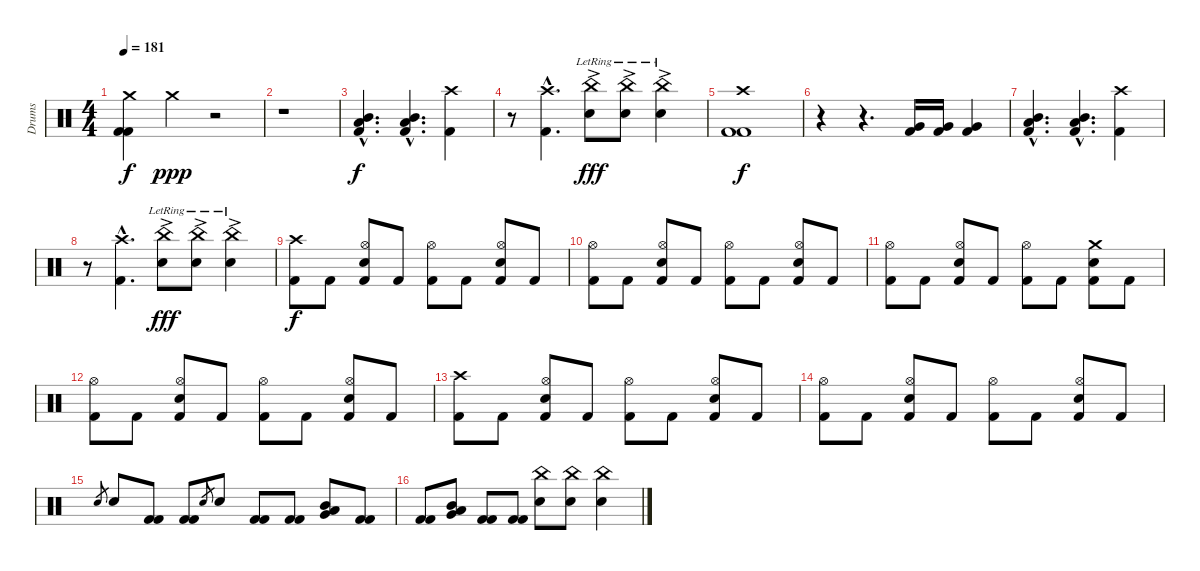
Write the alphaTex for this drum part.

\track ("Drums" "Drums") {instrument percussion}
\staff {score}
\articulation defaults
\ts (4 4)
\tempo 181
\clef neutral
\ks c
("Crash medium (hit)" "Kick (hit) 2" "Kick (hit) 2").4{dy f volume 14} "Crash medium (hit)".4{dy ppp} r.2 |
r.1 |
("Mid Tom (hit)"{hac} "Low Tom (hit)"{hac} "Kick (hit) 2"{hac}).4{d dy f} ("Mid Tom (hit)"{hac} "Low Tom (hit)"{hac} "Kick (hit) 2"{hac}).4{d} ("Crash high (hit)" "Kick (hit) 2").4 |
r.8 ("Crash high (hit)"{hac} "Kick (hit) 2"{hac}).4{d} ("China (hit)" "Snare (hit) 2"{ac lr}).8{dy fff} ("China (hit)" "Snare (hit) 2"{ac lr}).8 ("China (hit)" "Snare (hit) 2"{ac lr}).4 |
("Crash high (hit)" "Kick (hit) 2" "Kick (hit) 2").1{dy f} |
r.4 r.4{d} ("Very Low Tom (hit)" "Kick (hit) 2").16 ("Very Low Tom (hit)" "Kick (hit) 2").16 ("Very Low Tom (hit)" "Kick (hit) 2").4 |
("Mid Tom (hit)"{hac} "Low Tom (hit)"{hac} "Kick (hit) 2"{hac}).4{d} ("Mid Tom (hit)"{hac} "Low Tom (hit)"{hac} "Kick (hit) 2"{hac}).4{d} ("Crash high (hit)" "Kick (hit) 2").4 |
r.8 ("Crash high (hit)"{hac} "Kick (hit) 2"{hac}).4{d} ("China (hit)" "Snare (hit) 2"{ac lr}).8{dy fff} ("China (hit)" "Snare (hit) 2"{ac lr}).8 ("China (hit)" "Snare (hit) 2"{ac lr}).4 |
("Crash high (hit)" "Kick (hit) 2").8{dy f} "Kick (hit) 2".8 ("Hi-Hat (open)" "Electric Snare (hit)" "Kick (hit) 2").8 "Kick (hit) 2".8 ("Hi-Hat (open)" "Kick (hit) 2").8 "Kick (hit) 2".8 ("Hi-Hat (open)" "Electric Snare (hit)" "Kick (hit) 2").8 "Kick (hit) 2".8 |
("Hi-Hat (open)" "Kick (hit) 2").8 "Kick (hit) 2".8 ("Hi-Hat (open)" "Electric Snare (hit)" "Kick (hit) 2").8 "Kick (hit) 2".8 ("Hi-Hat (open)" "Kick (hit) 2").8 "Kick (hit) 2".8 ("Hi-Hat (open)" "Electric Snare (hit)" "Kick (hit) 2").8 "Kick (hit) 2".8 |
("Hi-Hat (open)" "Kick (hit) 2").8 "Kick (hit) 2".8 ("Hi-Hat (open)" "Electric Snare (hit)" "Kick (hit) 2").8 "Kick (hit) 2".8 ("Hi-Hat (open)" "Kick (hit) 2").8 "Kick (hit) 2".8 ("Crash medium (hit)" "Electric Snare (hit)" "Kick (hit) 2").8 "Kick (hit) 2".8 |
("Hi-Hat (open)" "Kick (hit) 2").8 "Kick (hit) 2".8 ("Hi-Hat (open)" "Electric Snare (hit)" "Kick (hit) 2").8 "Kick (hit) 2".8 ("Hi-Hat (open)" "Kick (hit) 2").8 "Kick (hit) 2".8 ("Hi-Hat (open)" "Electric Snare (hit)" "Kick (hit) 2").8 "Kick (hit) 2".8 |
("Crash high (hit)" "Kick (hit) 2").8 "Kick (hit) 2".8 ("Hi-Hat (open)" "Electric Snare (hit)" "Kick (hit) 2").8 "Kick (hit) 2".8 ("Hi-Hat (open)" "Kick (hit) 2").8 "Kick (hit) 2".8 ("Hi-Hat (open)" "Electric Snare (hit)" "Kick (hit) 2").8 "Kick (hit) 2".8 |
("Hi-Hat (open)" "Kick (hit) 2").8 "Kick (hit) 2".8 ("Hi-Hat (open)" "Electric Snare (hit)" "Kick (hit) 2").8 "Kick (hit) 2".8 ("Hi-Hat (open)" "Kick (hit) 2").8 "Kick (hit) 2".8 ("Hi-Hat (open)" "Electric Snare (hit)" "Kick (hit) 2").8 "Kick (hit) 2".8 |
"Electric Snare (hit)".8{gr} "Electric Snare (hit)".8 ("Kick (hit) 2" "Kick (hit) 2").8 ("Kick (hit) 2" "Kick (hit) 2").8 "Electric Snare (hit)".8{gr} "Electric Snare (hit)".8 ("Kick (hit) 2" "Kick (hit) 2").8 ("Kick (hit) 2" "Kick (hit) 2").8 ("Mid Tom (hit)" "Low Tom (hit)" "Very Low Tom (hit)").8 ("Kick (hit) 2" "Kick (hit) 2").8 |
("Kick (hit) 2" "Kick (hit) 2").8 ("Mid Tom (hit)" "Low Tom (hit)" "Very Low Tom (hit)").8 ("Kick (hit) 2" "Kick (hit) 2").8 ("Kick (hit) 2" "Kick (hit) 2").8 ("China (hit)" "Snare (hit) 2").8 ("China (hit)" "Snare (hit) 2").8 ("China (hit)" "Snare (hit) 2").4
